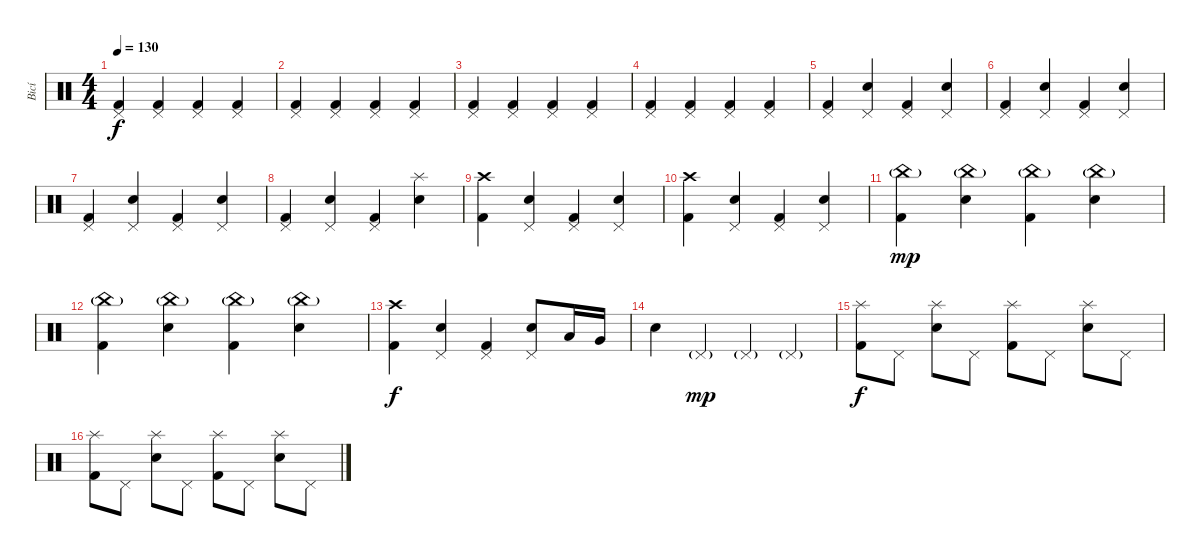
\track ("Bicí" "Bicí") {instrument percussion}
\staff {score}
\articulation defaults
\ts (4 4)
\tempo 130
\clef neutral
\ks c
("Pedal Hi-Hat (hit)" "Kick (hit) 2").4{dy f} ("Pedal Hi-Hat (hit)" "Kick (hit) 2").4 ("Pedal Hi-Hat (hit)" "Kick (hit) 2").4 ("Pedal Hi-Hat (hit)" "Kick (hit) 2").4 |
("Pedal Hi-Hat (hit)" "Kick (hit) 2").4 ("Pedal Hi-Hat (hit)" "Kick (hit) 2").4 ("Pedal Hi-Hat (hit)" "Kick (hit) 2").4 ("Pedal Hi-Hat (hit)" "Kick (hit) 2").4 |
("Pedal Hi-Hat (hit)" "Kick (hit) 2").4 ("Pedal Hi-Hat (hit)" "Kick (hit) 2").4 ("Pedal Hi-Hat (hit)" "Kick (hit) 2").4 ("Pedal Hi-Hat (hit)" "Kick (hit) 2").4 |
("Pedal Hi-Hat (hit)" "Kick (hit) 2").4 ("Pedal Hi-Hat (hit)" "Kick (hit) 2").4 ("Pedal Hi-Hat (hit)" "Kick (hit) 2").4 ("Pedal Hi-Hat (hit)" "Kick (hit) 2").4 |
("Pedal Hi-Hat (hit)" "Kick (hit) 2").4{volume 13} ("Pedal Hi-Hat (hit)" "Electric Snare (hit)").4{volume 16} ("Pedal Hi-Hat (hit)" "Kick (hit) 2").4{volume 13} ("Pedal Hi-Hat (hit)" "Electric Snare (hit)").4{volume 16} |
("Pedal Hi-Hat (hit)" "Kick (hit) 2").4{volume 13} ("Pedal Hi-Hat (hit)" "Electric Snare (hit)").4{volume 16} ("Pedal Hi-Hat (hit)" "Kick (hit) 2").4{volume 13} ("Pedal Hi-Hat (hit)" "Electric Snare (hit)").4{volume 16} |
("Pedal Hi-Hat (hit)" "Kick (hit) 2").4{volume 13} ("Pedal Hi-Hat (hit)" "Electric Snare (hit)").4{volume 16} ("Pedal Hi-Hat (hit)" "Kick (hit) 2").4{volume 13} ("Pedal Hi-Hat (hit)" "Electric Snare (hit)").4{volume 16} |
("Pedal Hi-Hat (hit)" "Kick (hit) 2").4{volume 13} ("Pedal Hi-Hat (hit)" "Electric Snare (hit)").4{volume 16} ("Pedal Hi-Hat (hit)" "Kick (hit) 2").4{volume 13} ("Splash (hit)" "Electric Snare (hit)").4{volume 16} |
("Crash high (hit)" "Kick (hit) 2").4{volume 13} ("Pedal Hi-Hat (hit)" "Electric Snare (hit)").4 ("Pedal Hi-Hat (hit)" "Kick (hit) 2").4 ("Pedal Hi-Hat (hit)" "Electric Snare (hit)").4 |
("Crash high (hit)" "Kick (hit) 2").4 ("Pedal Hi-Hat (hit)" "Electric Snare (hit)").4 ("Pedal Hi-Hat (hit)" "Kick (hit) 2").4 ("Pedal Hi-Hat (hit)" "Electric Snare (hit)").4 |
("China (hit)"{g} "Kick (hit) 2").4{dy mp} ("China (hit)"{g} "Electric Snare (hit)").4 ("China (hit)"{g} "Kick (hit) 2").4 ("China (hit)"{g} "Electric Snare (hit)").4 |
("China (hit)"{g} "Kick (hit) 2").4 ("China (hit)"{g} "Electric Snare (hit)").4 ("China (hit)"{g} "Kick (hit) 2").4 ("China (hit)"{g} "Electric Snare (hit)").4 |
("Crash high (hit)" "Kick (hit) 2").4{dy f} ("Pedal Hi-Hat (hit)" "Electric Snare (hit)").4 ("Pedal Hi-Hat (hit)" "Kick (hit) 2").4 ("Pedal Hi-Hat (hit)" "Electric Snare (hit)").8 "Low Tom (hit)".16 "Very Low Tom (hit)".16 |
"Electric Snare (hit)".4 "Pedal Hi-Hat (hit)"{g}.4{dy mp} "Pedal Hi-Hat (hit)"{g}.4 "Pedal Hi-Hat (hit)"{g}.4 |
("Splash (hit)" "Kick (hit) 2").8{dy f} "Pedal Hi-Hat (hit)".8 ("Splash (hit)" "Electric Snare (hit)").8 "Pedal Hi-Hat (hit)".8 ("Splash (hit)" "Kick (hit) 2").8 "Pedal Hi-Hat (hit)".8 ("Splash (hit)" "Electric Snare (hit)").8 "Pedal Hi-Hat (hit)".8 |
("Splash (hit)" "Kick (hit) 2").8 "Pedal Hi-Hat (hit)".8 ("Splash (hit)" "Electric Snare (hit)").8 "Pedal Hi-Hat (hit)".8 ("Splash (hit)" "Kick (hit) 2").8 "Pedal Hi-Hat (hit)".8 ("Splash (hit)" "Electric Snare (hit)").8 "Pedal Hi-Hat (hit)".8
